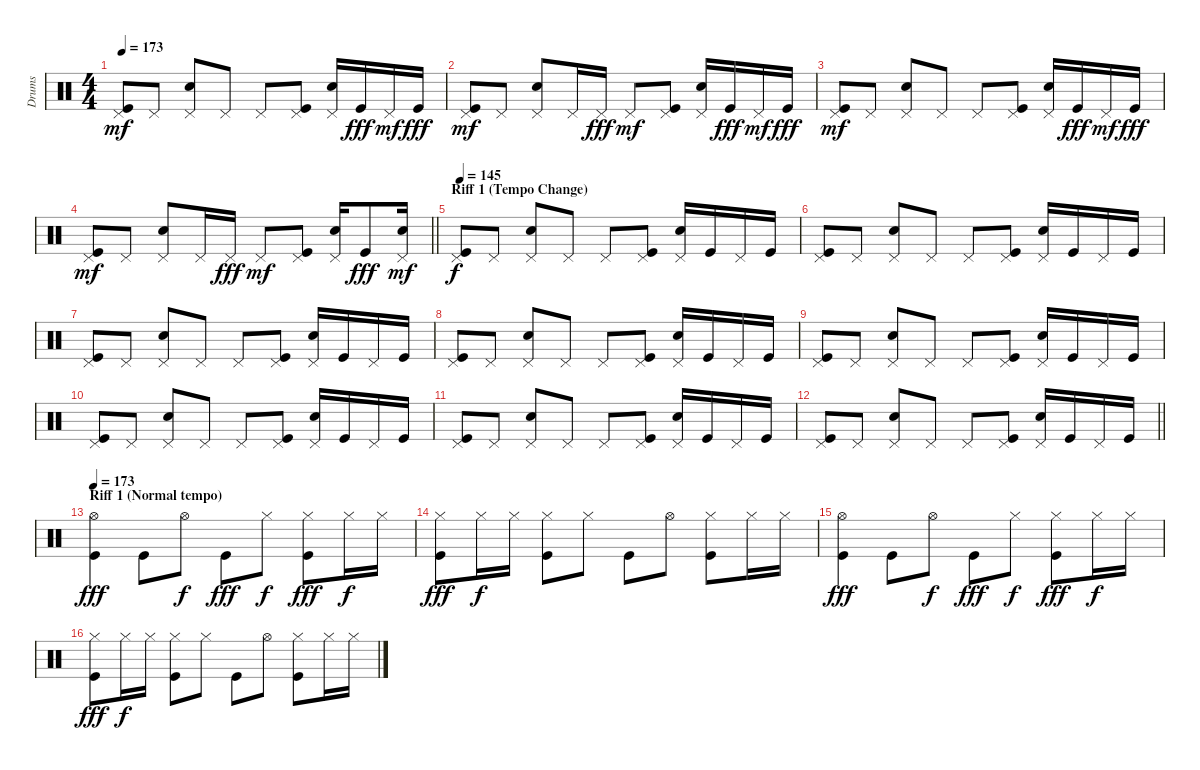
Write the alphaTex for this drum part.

\track ("Drums" "Drums") {instrument percussion}
\staff {score}
\articulation defaults
\ts (4 4)
\tempo 173
\clef neutral
\ks c
("Kick (hit)" "Pedal Hi-Hat (hit)").8{dy mf} "Pedal Hi-Hat (hit)".8 ("Snare (hit) 2" "Pedal Hi-Hat (hit)").8 "Pedal Hi-Hat (hit)".8 "Pedal Hi-Hat (hit)".8 ("Kick (hit)" "Pedal Hi-Hat (hit)").8 ("Snare (hit) 2" "Pedal Hi-Hat (hit)").16 "Kick (hit)".16{dy fff} "Pedal Hi-Hat (hit)".16{dy mf} "Kick (hit)".16{dy fff} |
("Kick (hit)" "Pedal Hi-Hat (hit)").8{dy mf} "Pedal Hi-Hat (hit)".8 ("Snare (hit) 2" "Pedal Hi-Hat (hit)").8 "Pedal Hi-Hat (hit)".16 "Pedal Hi-Hat (hit)".16{dy fff} "Pedal Hi-Hat (hit)".8{dy mf} ("Kick (hit)" "Pedal Hi-Hat (hit)").8 ("Snare (hit) 2" "Pedal Hi-Hat (hit)").16 "Kick (hit)".16{dy fff} "Pedal Hi-Hat (hit)".16{dy mf} "Kick (hit)".16{dy fff} |
("Kick (hit)" "Pedal Hi-Hat (hit)").8{dy mf} "Pedal Hi-Hat (hit)".8 ("Snare (hit) 2" "Pedal Hi-Hat (hit)").8 "Pedal Hi-Hat (hit)".8 "Pedal Hi-Hat (hit)".8 ("Kick (hit)" "Pedal Hi-Hat (hit)").8 ("Snare (hit) 2" "Pedal Hi-Hat (hit)").16 "Kick (hit)".16{dy fff} "Pedal Hi-Hat (hit)".16{dy mf} "Kick (hit)".16{dy fff} |
\barLineRight lightlight
("Kick (hit)" "Pedal Hi-Hat (hit)").8{dy mf} "Pedal Hi-Hat (hit)".8 ("Snare (hit) 2" "Pedal Hi-Hat (hit)").8 "Pedal Hi-Hat (hit)".16 "Pedal Hi-Hat (hit)".16{dy fff} "Pedal Hi-Hat (hit)".8{dy mf} ("Kick (hit)" "Pedal Hi-Hat (hit)").8 ("Snare (hit) 2" "Pedal Hi-Hat (hit)").16 "Kick (hit)".8{dy fff} ("Snare (hit) 2" "Pedal Hi-Hat (hit)").16{dy mf} |
\section ("" "Riff 1 (Tempo Change)")
\tempo 145
("Kick (hit)" "Pedal Hi-Hat (hit)").8{dy f} "Pedal Hi-Hat (hit)".8 ("Snare (hit) 2" "Pedal Hi-Hat (hit)").8 "Pedal Hi-Hat (hit)".8 "Pedal Hi-Hat (hit)".8 ("Kick (hit)" "Pedal Hi-Hat (hit)").8 ("Snare (hit) 2" "Pedal Hi-Hat (hit)").16 "Kick (hit)".16 "Pedal Hi-Hat (hit)".16 "Kick (hit)".16 |
("Kick (hit)" "Pedal Hi-Hat (hit)").8 "Pedal Hi-Hat (hit)".8 ("Snare (hit) 2" "Pedal Hi-Hat (hit)").8 "Pedal Hi-Hat (hit)".8 "Pedal Hi-Hat (hit)".8 ("Kick (hit)" "Pedal Hi-Hat (hit)").8 ("Snare (hit) 2" "Pedal Hi-Hat (hit)").16 "Kick (hit)".16 "Pedal Hi-Hat (hit)".16 "Kick (hit)".16 |
("Kick (hit)" "Pedal Hi-Hat (hit)").8 "Pedal Hi-Hat (hit)".8 ("Snare (hit) 2" "Pedal Hi-Hat (hit)").8 "Pedal Hi-Hat (hit)".8 "Pedal Hi-Hat (hit)".8 ("Kick (hit)" "Pedal Hi-Hat (hit)").8 ("Snare (hit) 2" "Pedal Hi-Hat (hit)").16 "Kick (hit)".16 "Pedal Hi-Hat (hit)".16 "Kick (hit)".16 |
("Kick (hit)" "Pedal Hi-Hat (hit)").8 "Pedal Hi-Hat (hit)".8 ("Snare (hit) 2" "Pedal Hi-Hat (hit)").8 "Pedal Hi-Hat (hit)".8 "Pedal Hi-Hat (hit)".8 ("Kick (hit)" "Pedal Hi-Hat (hit)").8 ("Snare (hit) 2" "Pedal Hi-Hat (hit)").16 "Kick (hit)".16 "Pedal Hi-Hat (hit)".16 "Kick (hit)".16 |
("Kick (hit)" "Pedal Hi-Hat (hit)").8 "Pedal Hi-Hat (hit)".8 ("Snare (hit) 2" "Pedal Hi-Hat (hit)").8 "Pedal Hi-Hat (hit)".8 "Pedal Hi-Hat (hit)".8 ("Kick (hit)" "Pedal Hi-Hat (hit)").8 ("Snare (hit) 2" "Pedal Hi-Hat (hit)").16 "Kick (hit)".16 "Pedal Hi-Hat (hit)".16 "Kick (hit)".16 |
("Kick (hit)" "Pedal Hi-Hat (hit)").8 "Pedal Hi-Hat (hit)".8 ("Snare (hit) 2" "Pedal Hi-Hat (hit)").8 "Pedal Hi-Hat (hit)".8 "Pedal Hi-Hat (hit)".8 ("Kick (hit)" "Pedal Hi-Hat (hit)").8 ("Snare (hit) 2" "Pedal Hi-Hat (hit)").16 "Kick (hit)".16 "Pedal Hi-Hat (hit)".16 "Kick (hit)".16 |
("Kick (hit)" "Pedal Hi-Hat (hit)").8 "Pedal Hi-Hat (hit)".8 ("Snare (hit) 2" "Pedal Hi-Hat (hit)").8 "Pedal Hi-Hat (hit)".8 "Pedal Hi-Hat (hit)".8 ("Kick (hit)" "Pedal Hi-Hat (hit)").8 ("Snare (hit) 2" "Pedal Hi-Hat (hit)").16 "Kick (hit)".16 "Pedal Hi-Hat (hit)".16 "Kick (hit)".16 |
\barLineRight lightlight
("Kick (hit)" "Pedal Hi-Hat (hit)").8 "Pedal Hi-Hat (hit)".8 ("Snare (hit) 2" "Pedal Hi-Hat (hit)").8 "Pedal Hi-Hat (hit)".8 "Pedal Hi-Hat (hit)".8 ("Kick (hit)" "Pedal Hi-Hat (hit)").8 ("Snare (hit) 2" "Pedal Hi-Hat (hit)").16 "Kick (hit)".16 "Pedal Hi-Hat (hit)".16 "Kick (hit)".16 |
\section ("" "Riff 1 (Normal tempo)")
\tempo 173
("Kick (hit)" "Hi-Hat (open)").4{dy fff} "Kick (hit)".8 "Hi-Hat (open)".8{dy f} "Kick (hit)".8{dy fff} "Hi-Hat (closed)".8{dy f} ("Kick (hit)" "Hi-Hat (closed)").8{dy fff} "Hi-Hat (closed)".16{dy f} "Hi-Hat (closed)".16 |
("Kick (hit)" "Hi-Hat (closed)").8{dy fff} "Hi-Hat (closed)".16{dy f} "Hi-Hat (closed)".16 ("Kick (hit)" "Hi-Hat (closed)").8 "Hi-Hat (closed)".8 "Kick (hit)".8 "Hi-Hat (open)".8 ("Kick (hit)" "Hi-Hat (closed)").8 "Hi-Hat (closed)".16 "Hi-Hat (closed)".16 |
("Kick (hit)" "Hi-Hat (open)").4{dy fff} "Kick (hit)".8 "Hi-Hat (open)".8{dy f} "Kick (hit)".8{dy fff} "Hi-Hat (closed)".8{dy f} ("Kick (hit)" "Hi-Hat (closed)").8{dy fff} "Hi-Hat (closed)".16{dy f} "Hi-Hat (closed)".16 |
("Kick (hit)" "Hi-Hat (closed)").8{dy fff} "Hi-Hat (closed)".16{dy f} "Hi-Hat (closed)".16 ("Kick (hit)" "Hi-Hat (closed)").8 "Hi-Hat (closed)".8 "Kick (hit)".8 "Hi-Hat (open)".8 ("Kick (hit)" "Hi-Hat (closed)").8 "Hi-Hat (closed)".16 "Hi-Hat (closed)".16
